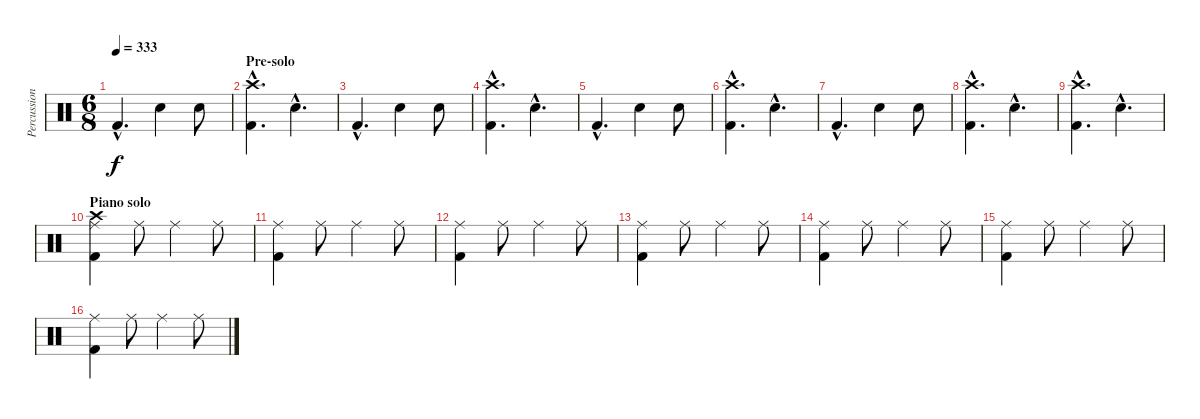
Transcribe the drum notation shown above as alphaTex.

\track ("Percussion" "Percussion") {instrument percussion}
\staff {score}
\articulation defaults
\ts (6 8)
\tempo 333
\clef neutral
\ks c "Kick (hit) 2"{hac}.4{d dy f} "Electric Snare (hit)".4 "Electric Snare (hit)".8
|
\section ("" "Pre-solo")
("Crash high (hit)"{hac} "Kick (hit) 2"{hac}).4{d} "Snare (hit) 2"{hac}.4{d} |
"Kick (hit) 2"{hac}.4{d} "Electric Snare (hit)".4 "Electric Snare (hit)".8 |
("Crash high (hit)"{hac} "Kick (hit) 2"{hac}).4{d} "Snare (hit) 2"{hac}.4{d} |
"Kick (hit) 2"{hac}.4{d} "Electric Snare (hit)".4 "Electric Snare (hit)".8 |
("Crash high (hit)"{hac} "Kick (hit) 2"{hac}).4{d} "Snare (hit) 2"{hac}.4{d} |
"Kick (hit) 2"{hac}.4{d} "Electric Snare (hit)".4 "Electric Snare (hit)".8 |
("Crash high (hit)"{hac} "Kick (hit) 2"{hac}).4{d} "Snare (hit) 2"{hac}.4{d} |
("Crash high (hit)"{hac} "Kick (hit) 2"{hac}).4{d} "Snare (hit) 2"{hac}.4{d} |
\section ("" "Piano solo")
("Crash high (hit)" "Ride (middle)" "Kick (hit) 2").4 "Ride (middle)".8 "Ride (middle)".4 "Ride (middle)".8 |
("Ride (middle)" "Kick (hit) 2").4 "Ride (middle)".8 "Ride (middle)".4 "Ride (middle)".8 |
("Ride (middle)" "Kick (hit) 2").4 "Ride (middle)".8 "Ride (middle)".4 "Ride (middle)".8 |
("Ride (middle)" "Kick (hit) 2").4 "Ride (middle)".8 "Ride (middle)".4 "Ride (middle)".8 |
("Ride (middle)" "Kick (hit) 2").4 "Ride (middle)".8 "Ride (middle)".4 "Ride (middle)".8 |
("Ride (middle)" "Kick (hit) 2").4 "Ride (middle)".8 "Ride (middle)".4 "Ride (middle)".8 |
("Ride (middle)" "Kick (hit) 2").4 "Ride (middle)".8 "Ride (middle)".4 "Ride (middle)".8
